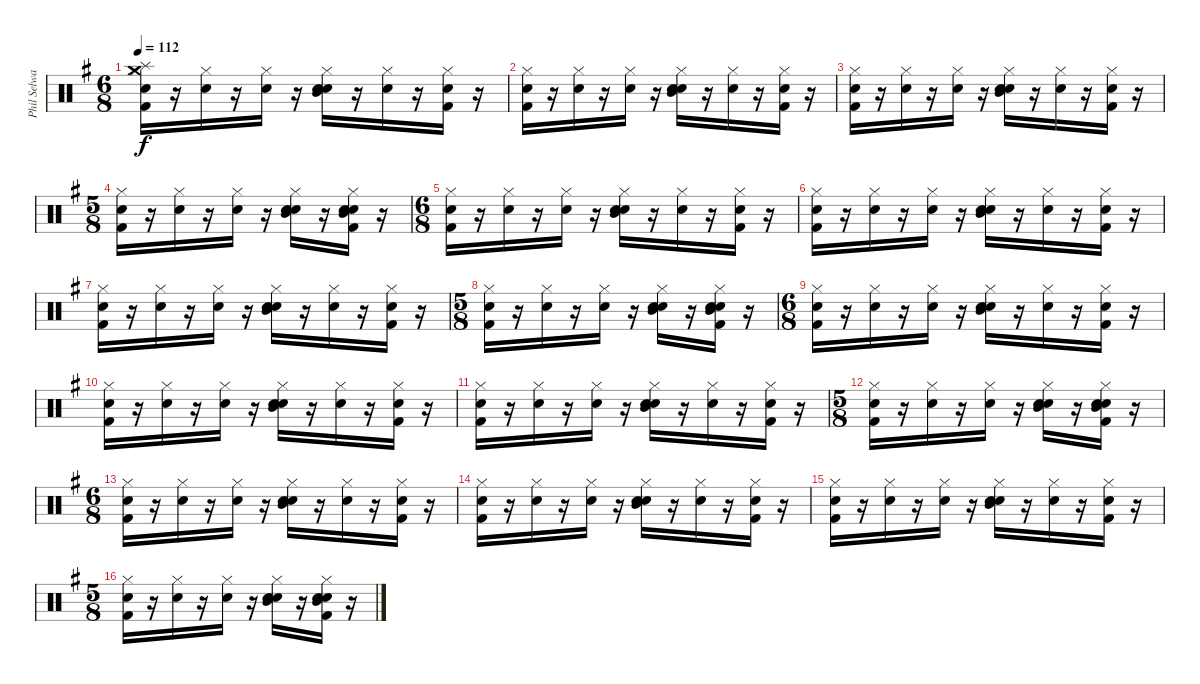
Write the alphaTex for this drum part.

\track ("Phil Selway" "Phil Selwa") {instrument percussion}
\staff {score}
\articulation defaults
\ts (6 8)
\tempo 112
\clef neutral
\ks g
("Hi-Hat (closed)" "Kick (hit) 2" "Snare (hit) 2" "Splash (hit)" "Crash medium (hit)").16{dy f} r.16 ("Hi-Hat (closed)" "Snare (hit) 2").16 r.16 ("Hi-Hat (closed)" "Snare (hit) 2").16 r.16 ("Hi-Hat (closed)" "Snare (hit) 2" "Mid Tom (hit)" "Electric Snare (hit)").16 r.16 ("Hi-Hat (closed)" "Snare (hit) 2").16 r.16 ("Hi-Hat (closed)" "Snare (hit) 2" "Kick (hit) 2").16 r.16 |
("Hi-Hat (closed)" "Kick (hit) 2" "Snare (hit) 2").16 r.16 ("Hi-Hat (closed)" "Snare (hit) 2").16 r.16 ("Hi-Hat (closed)" "Snare (hit) 2").16 r.16 ("Hi-Hat (closed)" "Snare (hit) 2" "Mid Tom (hit)" "Electric Snare (hit)").16 r.16 ("Hi-Hat (closed)" "Snare (hit) 2").16 r.16 ("Hi-Hat (closed)" "Snare (hit) 2" "Kick (hit) 2").16 r.16 |
("Hi-Hat (closed)" "Kick (hit) 2" "Snare (hit) 2").16 r.16 ("Hi-Hat (closed)" "Snare (hit) 2").16 r.16 ("Hi-Hat (closed)" "Snare (hit) 2").16 r.16 ("Hi-Hat (closed)" "Snare (hit) 2" "Mid Tom (hit)" "Electric Snare (hit)").16 r.16 ("Hi-Hat (closed)" "Snare (hit) 2").16 r.16 ("Hi-Hat (closed)" "Snare (hit) 2" "Kick (hit) 2").16 r.16 |
\ts (5 8)
("Hi-Hat (closed)" "Snare (hit) 2" "Kick (hit) 2").16 r.16 ("Hi-Hat (closed)" "Snare (hit) 2").16 r.16 ("Hi-Hat (closed)" "Snare (hit) 2").16 r.16 ("Hi-Hat (closed)" "Snare (hit) 2" "Mid Tom (hit)" "Electric Snare (hit)").16 r.16 ("Hi-Hat (closed)" "Snare (hit) 2" "Kick (hit) 2" "Mid Tom (hit)" "Electric Snare (hit)").16 r.16 |
\ts (6 8)
("Hi-Hat (closed)" "Kick (hit) 2" "Snare (hit) 2").16 r.16 ("Hi-Hat (closed)" "Snare (hit) 2").16 r.16 ("Hi-Hat (closed)" "Snare (hit) 2").16 r.16 ("Hi-Hat (closed)" "Snare (hit) 2" "Mid Tom (hit)" "Electric Snare (hit)").16 r.16 ("Hi-Hat (closed)" "Snare (hit) 2").16 r.16 ("Hi-Hat (closed)" "Snare (hit) 2" "Kick (hit) 2").16 r.16 |
("Hi-Hat (closed)" "Kick (hit) 2" "Snare (hit) 2").16 r.16 ("Hi-Hat (closed)" "Snare (hit) 2").16 r.16 ("Hi-Hat (closed)" "Snare (hit) 2").16 r.16 ("Hi-Hat (closed)" "Snare (hit) 2" "Mid Tom (hit)" "Electric Snare (hit)").16 r.16 ("Hi-Hat (closed)" "Snare (hit) 2").16 r.16 ("Hi-Hat (closed)" "Snare (hit) 2" "Kick (hit) 2").16 r.16 |
("Hi-Hat (closed)" "Kick (hit) 2" "Snare (hit) 2").16 r.16 ("Hi-Hat (closed)" "Snare (hit) 2").16 r.16 ("Hi-Hat (closed)" "Snare (hit) 2").16 r.16 ("Hi-Hat (closed)" "Snare (hit) 2" "Mid Tom (hit)" "Electric Snare (hit)").16 r.16 ("Hi-Hat (closed)" "Snare (hit) 2").16 r.16 ("Hi-Hat (closed)" "Snare (hit) 2" "Kick (hit) 2").16 r.16 |
\ts (5 8)
("Hi-Hat (closed)" "Snare (hit) 2" "Kick (hit) 2").16 r.16 ("Hi-Hat (closed)" "Snare (hit) 2").16 r.16 ("Hi-Hat (closed)" "Snare (hit) 2").16 r.16 ("Hi-Hat (closed)" "Snare (hit) 2" "Mid Tom (hit)" "Electric Snare (hit)").16 r.16 ("Hi-Hat (closed)" "Snare (hit) 2" "Kick (hit) 2" "Mid Tom (hit)" "Electric Snare (hit)").16 r.16 |
\ts (6 8)
("Hi-Hat (closed)" "Kick (hit) 2" "Snare (hit) 2").16 r.16 ("Hi-Hat (closed)" "Snare (hit) 2").16 r.16 ("Hi-Hat (closed)" "Snare (hit) 2").16 r.16 ("Hi-Hat (closed)" "Snare (hit) 2" "Mid Tom (hit)" "Electric Snare (hit)").16 r.16 ("Hi-Hat (closed)" "Snare (hit) 2").16 r.16 ("Hi-Hat (closed)" "Snare (hit) 2" "Kick (hit) 2").16 r.16 |
("Hi-Hat (closed)" "Kick (hit) 2" "Snare (hit) 2").16 r.16 ("Hi-Hat (closed)" "Snare (hit) 2").16 r.16 ("Hi-Hat (closed)" "Snare (hit) 2").16 r.16 ("Hi-Hat (closed)" "Snare (hit) 2" "Mid Tom (hit)" "Electric Snare (hit)").16 r.16 ("Hi-Hat (closed)" "Snare (hit) 2").16 r.16 ("Hi-Hat (closed)" "Snare (hit) 2" "Kick (hit) 2").16 r.16 |
("Hi-Hat (closed)" "Kick (hit) 2" "Snare (hit) 2").16 r.16 ("Hi-Hat (closed)" "Snare (hit) 2").16 r.16 ("Hi-Hat (closed)" "Snare (hit) 2").16 r.16 ("Hi-Hat (closed)" "Snare (hit) 2" "Mid Tom (hit)" "Electric Snare (hit)").16 r.16 ("Hi-Hat (closed)" "Snare (hit) 2").16 r.16 ("Hi-Hat (closed)" "Snare (hit) 2" "Kick (hit) 2").16 r.16 |
\ts (5 8)
("Hi-Hat (closed)" "Snare (hit) 2" "Kick (hit) 2").16 r.16 ("Hi-Hat (closed)" "Snare (hit) 2").16 r.16 ("Hi-Hat (closed)" "Snare (hit) 2").16 r.16 ("Hi-Hat (closed)" "Snare (hit) 2" "Mid Tom (hit)" "Electric Snare (hit)").16 r.16 ("Hi-Hat (closed)" "Snare (hit) 2" "Kick (hit) 2" "Mid Tom (hit)" "Electric Snare (hit)").16 r.16 |
\ts (6 8)
("Hi-Hat (closed)" "Kick (hit) 2" "Snare (hit) 2").16 r.16 ("Hi-Hat (closed)" "Snare (hit) 2").16 r.16 ("Hi-Hat (closed)" "Snare (hit) 2").16 r.16 ("Hi-Hat (closed)" "Snare (hit) 2" "Mid Tom (hit)" "Electric Snare (hit)").16 r.16 ("Hi-Hat (closed)" "Snare (hit) 2").16 r.16 ("Hi-Hat (closed)" "Snare (hit) 2" "Kick (hit) 2").16 r.16 |
("Hi-Hat (closed)" "Kick (hit) 2" "Snare (hit) 2").16 r.16 ("Hi-Hat (closed)" "Snare (hit) 2").16 r.16 ("Hi-Hat (closed)" "Snare (hit) 2").16 r.16 ("Hi-Hat (closed)" "Snare (hit) 2" "Mid Tom (hit)" "Electric Snare (hit)").16 r.16 ("Hi-Hat (closed)" "Snare (hit) 2").16 r.16 ("Hi-Hat (closed)" "Snare (hit) 2" "Kick (hit) 2").16 r.16 |
("Hi-Hat (closed)" "Kick (hit) 2" "Snare (hit) 2").16 r.16 ("Hi-Hat (closed)" "Snare (hit) 2").16 r.16 ("Hi-Hat (closed)" "Snare (hit) 2").16 r.16 ("Hi-Hat (closed)" "Snare (hit) 2" "Mid Tom (hit)" "Electric Snare (hit)").16 r.16 ("Hi-Hat (closed)" "Snare (hit) 2").16 r.16 ("Hi-Hat (closed)" "Snare (hit) 2" "Kick (hit) 2").16 r.16 |
\ts (5 8)
("Hi-Hat (closed)" "Snare (hit) 2" "Kick (hit) 2").16 r.16 ("Hi-Hat (closed)" "Snare (hit) 2").16 r.16 ("Hi-Hat (closed)" "Snare (hit) 2").16 r.16 ("Hi-Hat (closed)" "Snare (hit) 2" "Mid Tom (hit)" "Electric Snare (hit)").16 r.16 ("Hi-Hat (closed)" "Snare (hit) 2" "Kick (hit) 2" "Mid Tom (hit)" "Electric Snare (hit)").16 r.16
